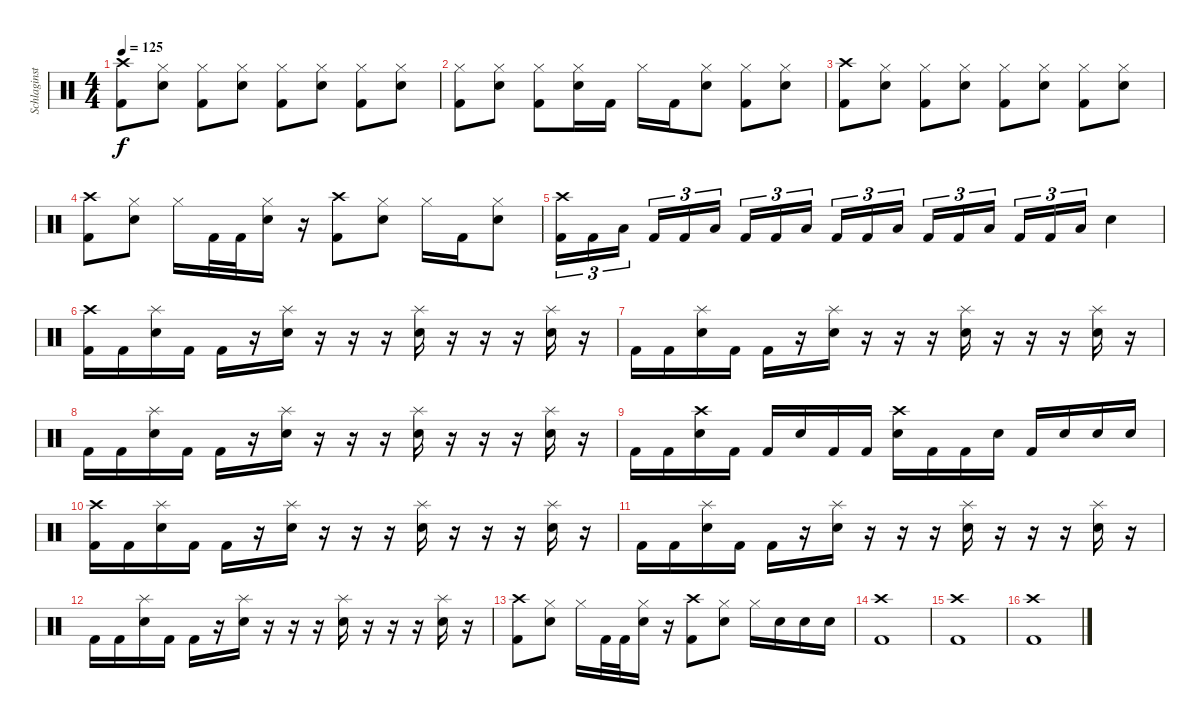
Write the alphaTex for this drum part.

\track ("Schlaginstrumente - Auswahl" "Schlaginst") {instrument percussion}
\staff {score}
\articulation defaults
\ts (4 4)
\tempo 125
\clef neutral
\ks c
("Crash high (hit)" "Kick (hit) 2").8{dy f} ("Hi-Hat (closed)" "Electric Snare (hit)").8 ("Hi-Hat (closed)" "Kick (hit) 2").8 ("Hi-Hat (closed)" "Electric Snare (hit)").8 ("Hi-Hat (closed)" "Kick (hit) 2").8 ("Hi-Hat (closed)" "Electric Snare (hit)").8 ("Hi-Hat (closed)" "Kick (hit) 2").8 ("Hi-Hat (closed)" "Electric Snare (hit)").8 |
("Hi-Hat (closed)" "Kick (hit) 2").8 ("Hi-Hat (closed)" "Electric Snare (hit)").8 ("Hi-Hat (closed)" "Kick (hit) 2").8 ("Hi-Hat (closed)" "Electric Snare (hit)").16 "Kick (hit) 2".16 "Hi-Hat (closed)".16 "Kick (hit) 2".16 ("Hi-Hat (closed)" "Electric Snare (hit)").8 ("Hi-Hat (closed)" "Kick (hit) 2").8 ("Hi-Hat (closed)" "Electric Snare (hit)").8 |
("Crash high (hit)" "Kick (hit) 2").8 ("Hi-Hat (closed)" "Electric Snare (hit)").8 ("Hi-Hat (closed)" "Kick (hit) 2").8 ("Hi-Hat (closed)" "Electric Snare (hit)").8 ("Hi-Hat (closed)" "Kick (hit) 2").8 ("Hi-Hat (closed)" "Electric Snare (hit)").8 ("Hi-Hat (closed)" "Kick (hit) 2").8 ("Hi-Hat (closed)" "Electric Snare (hit)").8 |
("Crash high (hit)" "Kick (hit) 2").8 ("Hi-Hat (closed)" "Electric Snare (hit)").8 "Hi-Hat (closed)".16 "Kick (hit) 2".32 "Kick (hit) 2".32 ("Hi-Hat (closed)" "Electric Snare (hit)").16 r.16 ("Crash high (hit)" "Kick (hit) 2").8 ("Hi-Hat (closed)" "Electric Snare (hit)").8 "Hi-Hat (closed)".16 "Kick (hit) 2".16 ("Hi-Hat (closed)" "Electric Snare (hit)").8 |
("Crash high (hit)" "Kick (hit) 2").16{tu (3 2)} "Kick (hit) 2".16{tu (3 2)} "Low Tom (hit)".16{tu (3 2) beam splitsecondary} "Kick (hit) 2".16{tu (3 2)} "Kick (hit) 2".16{tu (3 2)} "Low Tom (hit)".16{tu (3 2)} "Kick (hit) 2".16{tu (3 2)} "Kick (hit) 2".16{tu (3 2)} "Low Tom (hit)".16{tu (3 2) beam splitsecondary} "Kick (hit) 2".16{tu (3 2)} "Kick (hit) 2".16{tu (3 2)} "Low Tom (hit)".16{tu (3 2)} "Kick (hit) 2".16{tu (3 2)} "Kick (hit) 2".16{tu (3 2)} "Low Tom (hit)".16{tu (3 2) beam splitsecondary} "Kick (hit) 2".16{tu (3 2)} "Kick (hit) 2".16{tu (3 2)} "Low Tom (hit)".16{tu (3 2)} "Electric Snare (hit)".4 |
("Crash high (hit)" "Kick (hit) 2").16 "Kick (hit) 2".16 ("Splash (hit)" "Electric Snare (hit)").16 "Kick (hit) 2".16 "Kick (hit) 2".16 r.16 ("Splash (hit)" "Electric Snare (hit)").16 r.16 r.16 r.16 ("Splash (hit)" "Electric Snare (hit)").16 r.16 r.16 r.16 ("Splash (hit)" "Electric Snare (hit)").16 r.16 |
"Kick (hit) 2".16 "Kick (hit) 2".16 ("Splash (hit)" "Electric Snare (hit)").16 "Kick (hit) 2".16 "Kick (hit) 2".16 r.16 ("Splash (hit)" "Electric Snare (hit)").16 r.16 r.16 r.16 ("Splash (hit)" "Electric Snare (hit)").16 r.16 r.16 r.16 ("Splash (hit)" "Electric Snare (hit)").16 r.16 |
"Kick (hit) 2".16 "Kick (hit) 2".16 ("Splash (hit)" "Electric Snare (hit)").16 "Kick (hit) 2".16 "Kick (hit) 2".16 r.16 ("Splash (hit)" "Electric Snare (hit)").16 r.16 r.16 r.16 ("Splash (hit)" "Electric Snare (hit)").16 r.16 r.16 r.16 ("Splash (hit)" "Electric Snare (hit)").16 r.16 |
"Kick (hit) 2".16 "Kick (hit) 2".16 ("Crash high (hit)" "Electric Snare (hit)").16 "Kick (hit) 2".16 "Kick (hit) 2".16 "Electric Snare (hit)".16 "Kick (hit) 2".16 "Kick (hit) 2".16 ("Crash high (hit)" "Electric Snare (hit)").16 "Kick (hit) 2".16 "Kick (hit) 2".16 "Electric Snare (hit)".16 "Kick (hit) 2".16 "Electric Snare (hit)".16 "Electric Snare (hit)".16 "Electric Snare (hit)".16 |
("Crash high (hit)" "Kick (hit) 2").16 "Kick (hit) 2".16 ("Splash (hit)" "Electric Snare (hit)").16 "Kick (hit) 2".16 "Kick (hit) 2".16 r.16 ("Splash (hit)" "Electric Snare (hit)").16 r.16 r.16 r.16 ("Splash (hit)" "Electric Snare (hit)").16 r.16 r.16 r.16 ("Splash (hit)" "Electric Snare (hit)").16 r.16 |
"Kick (hit) 2".16 "Kick (hit) 2".16 ("Splash (hit)" "Electric Snare (hit)").16 "Kick (hit) 2".16 "Kick (hit) 2".16 r.16 ("Splash (hit)" "Electric Snare (hit)").16 r.16 r.16 r.16 ("Splash (hit)" "Electric Snare (hit)").16 r.16 r.16 r.16 ("Splash (hit)" "Electric Snare (hit)").16 r.16 |
"Kick (hit) 2".16 "Kick (hit) 2".16 ("Splash (hit)" "Electric Snare (hit)").16 "Kick (hit) 2".16 "Kick (hit) 2".16 r.16 ("Splash (hit)" "Electric Snare (hit)").16 r.16 r.16 r.16 ("Splash (hit)" "Electric Snare (hit)").16 r.16 r.16 r.16 ("Splash (hit)" "Electric Snare (hit)").16 r.16 |
("Crash high (hit)" "Kick (hit) 2").8 ("Hi-Hat (closed)" "Electric Snare (hit)").8 "Hi-Hat (closed)".16 "Kick (hit) 2".32 "Kick (hit) 2".32 ("Hi-Hat (closed)" "Electric Snare (hit)").16 r.16 ("Crash high (hit)" "Kick (hit) 2").8 ("Hi-Hat (closed)" "Electric Snare (hit)").8 "Hi-Hat (closed)".16 "Electric Snare (hit)".16 "Electric Snare (hit)".16 "Electric Snare (hit)".16 |
("Crash high (hit)" "Kick (hit) 2").1 |
("Crash high (hit)" "Kick (hit) 2").1 |
("Crash high (hit)" "Kick (hit) 2").1
